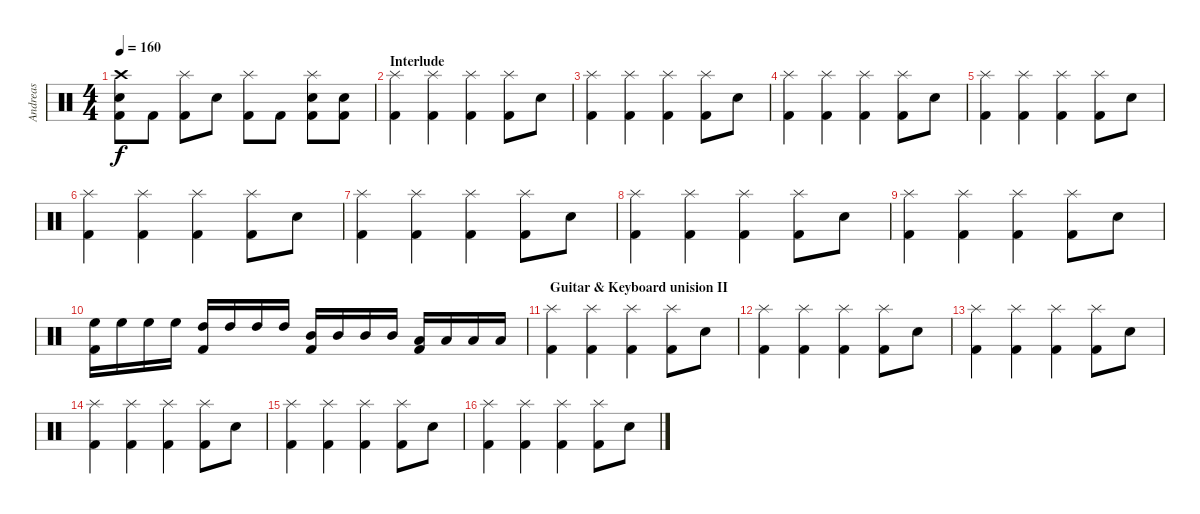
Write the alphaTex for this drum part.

\track ("Andreas" "Andreas") {instrument percussion}
\staff {score}
\articulation defaults
\ts (4 4)
\tempo 160
\clef neutral
\ks c
("Crash high (hit)" "Snare (hit) 2" "Kick (hit) 2").8{dy f} "Kick (hit) 2".8 ("Splash (hit)" "Kick (hit) 2").8 "Snare (hit) 2".8 ("Splash (hit)" "Kick (hit) 2").8 "Kick (hit) 2".8 ("Splash (hit)" "Snare (hit) 2" "Kick (hit) 2").8 ("Snare (hit) 2" "Kick (hit) 2").8 |
\section ("" "Interlude")
("Splash (hit)" "Kick (hit) 2").4 ("Splash (hit)" "Kick (hit) 2").4 ("Splash (hit)" "Kick (hit) 2").4 ("Splash (hit)" "Kick (hit) 2").8 "Snare (hit) 2".8 |
("Splash (hit)" "Kick (hit) 2").4 ("Splash (hit)" "Kick (hit) 2").4 ("Splash (hit)" "Kick (hit) 2").4 ("Splash (hit)" "Kick (hit) 2").8 "Snare (hit) 2".8 |
("Splash (hit)" "Kick (hit) 2").4 ("Splash (hit)" "Kick (hit) 2").4 ("Splash (hit)" "Kick (hit) 2").4 ("Splash (hit)" "Kick (hit) 2").8 "Snare (hit) 2".8 |
("Splash (hit)" "Kick (hit) 2").4 ("Splash (hit)" "Kick (hit) 2").4 ("Splash (hit)" "Kick (hit) 2").4 ("Splash (hit)" "Kick (hit) 2").8 "Snare (hit) 2".8 |
("Splash (hit)" "Kick (hit) 2").4 ("Splash (hit)" "Kick (hit) 2").4 ("Splash (hit)" "Kick (hit) 2").4 ("Splash (hit)" "Kick (hit) 2").8 "Snare (hit) 2".8 |
("Splash (hit)" "Kick (hit) 2").4 ("Splash (hit)" "Kick (hit) 2").4 ("Splash (hit)" "Kick (hit) 2").4 ("Splash (hit)" "Kick (hit) 2").8 "Snare (hit) 2".8 |
("Splash (hit)" "Kick (hit) 2").4 ("Splash (hit)" "Kick (hit) 2").4 ("Splash (hit)" "Kick (hit) 2").4 ("Splash (hit)" "Kick (hit) 2").8 "Snare (hit) 2".8 |
("Splash (hit)" "Kick (hit) 2").4 ("Splash (hit)" "Kick (hit) 2").4 ("Splash (hit)" "Kick (hit) 2").4 ("Splash (hit)" "Kick (hit) 2").8 "Snare (hit) 2".8 |
("High Floor Tom (hit)" "Kick (hit) 2").16 "High Floor Tom (hit)".16 "High Floor Tom (hit)".16 "High Floor Tom (hit)".16 ("High Tom (hit)" "Kick (hit) 2").16 "High Tom (hit)".16 "High Tom (hit)".16 "High Tom (hit)".16 ("Mid Tom (hit)" "Kick (hit) 2").16 "Mid Tom (hit)".16 "Mid Tom (hit)".16 "Mid Tom (hit)".16 ("Low Tom (hit)" "Kick (hit) 2").16 "Low Tom (hit)".16 "Low Tom (hit)".16 "Low Tom (hit)".16 |
\section ("" " Guitar & Keyboard unision II")
("Splash (hit)" "Kick (hit) 2").4 ("Splash (hit)" "Kick (hit) 2").4 ("Splash (hit)" "Kick (hit) 2").4 ("Splash (hit)" "Kick (hit) 2").8 "Snare (hit) 2".8 |
("Splash (hit)" "Kick (hit) 2").4 ("Splash (hit)" "Kick (hit) 2").4 ("Splash (hit)" "Kick (hit) 2").4 ("Splash (hit)" "Kick (hit) 2").8 "Snare (hit) 2".8 |
("Splash (hit)" "Kick (hit) 2").4 ("Splash (hit)" "Kick (hit) 2").4 ("Splash (hit)" "Kick (hit) 2").4 ("Splash (hit)" "Kick (hit) 2").8 "Snare (hit) 2".8 |
("Splash (hit)" "Kick (hit) 2").4 ("Splash (hit)" "Kick (hit) 2").4 ("Splash (hit)" "Kick (hit) 2").4 ("Splash (hit)" "Kick (hit) 2").8 "Snare (hit) 2".8 |
("Splash (hit)" "Kick (hit) 2").4 ("Splash (hit)" "Kick (hit) 2").4 ("Splash (hit)" "Kick (hit) 2").4 ("Splash (hit)" "Kick (hit) 2").8 "Snare (hit) 2".8 |
("Splash (hit)" "Kick (hit) 2").4 ("Splash (hit)" "Kick (hit) 2").4 ("Splash (hit)" "Kick (hit) 2").4 ("Splash (hit)" "Kick (hit) 2").8 "Snare (hit) 2".8
